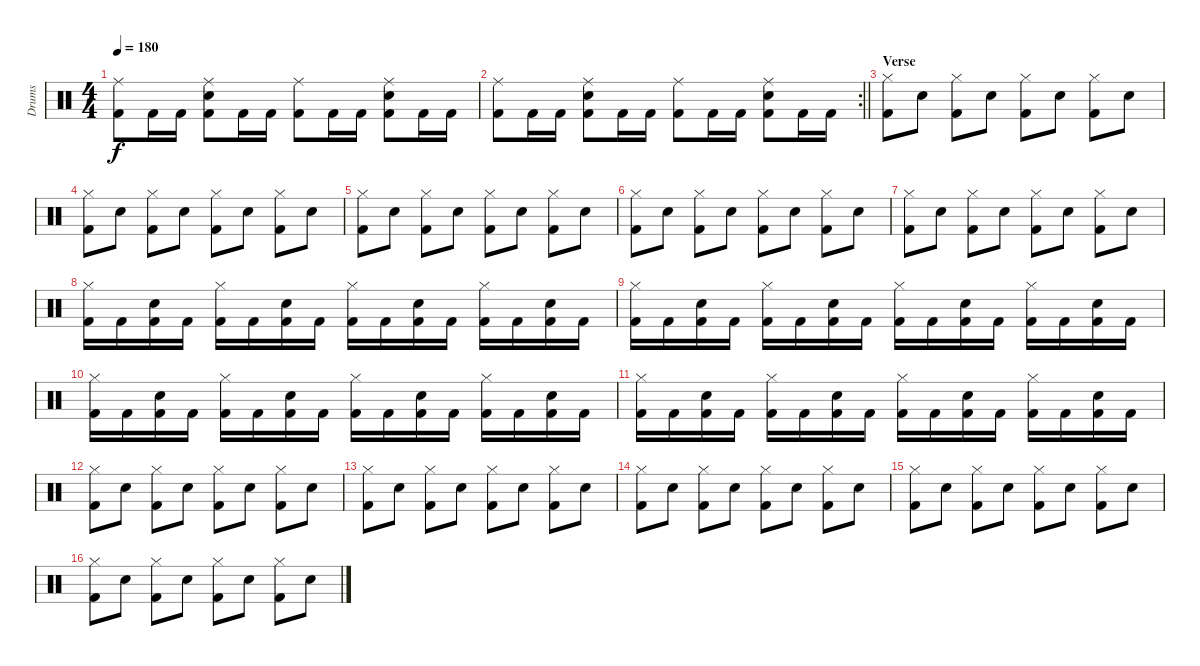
\track ("Drums" "Drums") {instrument percussion}
\staff {score}
\articulation defaults
\ts (4 4)
\tempo 180
\clef neutral
\ks c
("Ride (middle)" "Kick (hit) 2").8{dy f} "Kick (hit) 2".16 "Kick (hit) 2".16 ("Ride (middle)" "Electric Snare (hit)" "Kick (hit) 2").8 "Kick (hit) 2".16 "Kick (hit) 2".16 ("Ride (middle)" "Kick (hit) 2").8 "Kick (hit) 2".16 "Kick (hit) 2".16 ("Ride (middle)" "Electric Snare (hit)" "Kick (hit) 2").8 "Kick (hit) 2".16 "Kick (hit) 2".16 |
\rc 2
\barLineRight lightlight
("Ride (middle)" "Kick (hit) 2").8 "Kick (hit) 2".16 "Kick (hit) 2".16 ("Ride (middle)" "Electric Snare (hit)" "Kick (hit) 2").8 "Kick (hit) 2".16 "Kick (hit) 2".16 ("Ride (middle)" "Kick (hit) 2").8 "Kick (hit) 2".16 "Kick (hit) 2".16 ("Ride (middle)" "Electric Snare (hit)" "Kick (hit) 2").8 "Kick (hit) 2".16 "Kick (hit) 2".16 |
\section ("" "Verse")
("Hi-Hat (closed)" "Kick (hit) 2").8 "Electric Snare (hit)".8 ("Hi-Hat (closed)" "Kick (hit) 2").8 "Electric Snare (hit)".8 ("Hi-Hat (closed)" "Kick (hit) 2").8 "Electric Snare (hit)".8 ("Hi-Hat (closed)" "Kick (hit) 2").8 "Electric Snare (hit)".8 |
("Hi-Hat (closed)" "Kick (hit) 2").8 "Electric Snare (hit)".8 ("Hi-Hat (closed)" "Kick (hit) 2").8 "Electric Snare (hit)".8 ("Hi-Hat (closed)" "Kick (hit) 2").8 "Electric Snare (hit)".8 ("Hi-Hat (closed)" "Kick (hit) 2").8 "Electric Snare (hit)".8 |
("Hi-Hat (closed)" "Kick (hit) 2").8 "Electric Snare (hit)".8 ("Hi-Hat (closed)" "Kick (hit) 2").8 "Electric Snare (hit)".8 ("Hi-Hat (closed)" "Kick (hit) 2").8 "Electric Snare (hit)".8 ("Hi-Hat (closed)" "Kick (hit) 2").8 "Electric Snare (hit)".8 |
("Hi-Hat (closed)" "Kick (hit) 2").8 "Electric Snare (hit)".8 ("Hi-Hat (closed)" "Kick (hit) 2").8 "Electric Snare (hit)".8 ("Hi-Hat (closed)" "Kick (hit) 2").8 "Electric Snare (hit)".8 ("Hi-Hat (closed)" "Kick (hit) 2").8 "Electric Snare (hit)".8 |
("Hi-Hat (closed)" "Kick (hit) 2").8 "Electric Snare (hit)".8 ("Hi-Hat (closed)" "Kick (hit) 2").8 "Electric Snare (hit)".8 ("Hi-Hat (closed)" "Kick (hit) 2").8 "Electric Snare (hit)".8 ("Hi-Hat (closed)" "Kick (hit) 2").8 "Electric Snare (hit)".8 |
("Hi-Hat (closed)" "Kick (hit) 2").16 "Kick (hit) 2".16 ("Electric Snare (hit)" "Kick (hit) 2").16 "Kick (hit) 2".16 ("Hi-Hat (closed)" "Kick (hit) 2").16 "Kick (hit) 2".16 ("Electric Snare (hit)" "Kick (hit) 2").16 "Kick (hit) 2".16 ("Hi-Hat (closed)" "Kick (hit) 2").16 "Kick (hit) 2".16 ("Electric Snare (hit)" "Kick (hit) 2").16 "Kick (hit) 2".16 ("Hi-Hat (closed)" "Kick (hit) 2").16 "Kick (hit) 2".16 ("Electric Snare (hit)" "Kick (hit) 2").16 "Kick (hit) 2".16 |
("Hi-Hat (closed)" "Kick (hit) 2").16 "Kick (hit) 2".16 ("Electric Snare (hit)" "Kick (hit) 2").16 "Kick (hit) 2".16 ("Hi-Hat (closed)" "Kick (hit) 2").16 "Kick (hit) 2".16 ("Electric Snare (hit)" "Kick (hit) 2").16 "Kick (hit) 2".16 ("Hi-Hat (closed)" "Kick (hit) 2").16 "Kick (hit) 2".16 ("Electric Snare (hit)" "Kick (hit) 2").16 "Kick (hit) 2".16 ("Hi-Hat (closed)" "Kick (hit) 2").16 "Kick (hit) 2".16 ("Electric Snare (hit)" "Kick (hit) 2").16 "Kick (hit) 2".16 |
("Hi-Hat (closed)" "Kick (hit) 2").16 "Kick (hit) 2".16 ("Electric Snare (hit)" "Kick (hit) 2").16 "Kick (hit) 2".16 ("Hi-Hat (closed)" "Kick (hit) 2").16 "Kick (hit) 2".16 ("Electric Snare (hit)" "Kick (hit) 2").16 "Kick (hit) 2".16 ("Hi-Hat (closed)" "Kick (hit) 2").16 "Kick (hit) 2".16 ("Electric Snare (hit)" "Kick (hit) 2").16 "Kick (hit) 2".16 ("Hi-Hat (closed)" "Kick (hit) 2").16 "Kick (hit) 2".16 ("Electric Snare (hit)" "Kick (hit) 2").16 "Kick (hit) 2".16 |
("Hi-Hat (closed)" "Kick (hit) 2").16 "Kick (hit) 2".16 ("Electric Snare (hit)" "Kick (hit) 2").16 "Kick (hit) 2".16 ("Hi-Hat (closed)" "Kick (hit) 2").16 "Kick (hit) 2".16 ("Electric Snare (hit)" "Kick (hit) 2").16 "Kick (hit) 2".16 ("Hi-Hat (closed)" "Kick (hit) 2").16 "Kick (hit) 2".16 ("Electric Snare (hit)" "Kick (hit) 2").16 "Kick (hit) 2".16 ("Hi-Hat (closed)" "Kick (hit) 2").16 "Kick (hit) 2".16 ("Electric Snare (hit)" "Kick (hit) 2").16 "Kick (hit) 2".16 |
("Hi-Hat (closed)" "Kick (hit) 2").8 "Electric Snare (hit)".8 ("Hi-Hat (closed)" "Kick (hit) 2").8 "Electric Snare (hit)".8 ("Hi-Hat (closed)" "Kick (hit) 2").8 "Electric Snare (hit)".8 ("Hi-Hat (closed)" "Kick (hit) 2").8 "Electric Snare (hit)".8 |
("Hi-Hat (closed)" "Kick (hit) 2").8 "Electric Snare (hit)".8 ("Hi-Hat (closed)" "Kick (hit) 2").8 "Electric Snare (hit)".8 ("Hi-Hat (closed)" "Kick (hit) 2").8 "Electric Snare (hit)".8 ("Hi-Hat (closed)" "Kick (hit) 2").8 "Electric Snare (hit)".8 |
("Hi-Hat (closed)" "Kick (hit) 2").8 "Electric Snare (hit)".8 ("Hi-Hat (closed)" "Kick (hit) 2").8 "Electric Snare (hit)".8 ("Hi-Hat (closed)" "Kick (hit) 2").8 "Electric Snare (hit)".8 ("Hi-Hat (closed)" "Kick (hit) 2").8 "Electric Snare (hit)".8 |
("Hi-Hat (closed)" "Kick (hit) 2").8 "Electric Snare (hit)".8 ("Hi-Hat (closed)" "Kick (hit) 2").8 "Electric Snare (hit)".8 ("Hi-Hat (closed)" "Kick (hit) 2").8 "Electric Snare (hit)".8 ("Hi-Hat (closed)" "Kick (hit) 2").8 "Electric Snare (hit)".8 |
("Hi-Hat (closed)" "Kick (hit) 2").8 "Electric Snare (hit)".8 ("Hi-Hat (closed)" "Kick (hit) 2").8 "Electric Snare (hit)".8 ("Hi-Hat (closed)" "Kick (hit) 2").8 "Electric Snare (hit)".8 ("Hi-Hat (closed)" "Kick (hit) 2").8 "Electric Snare (hit)".8
